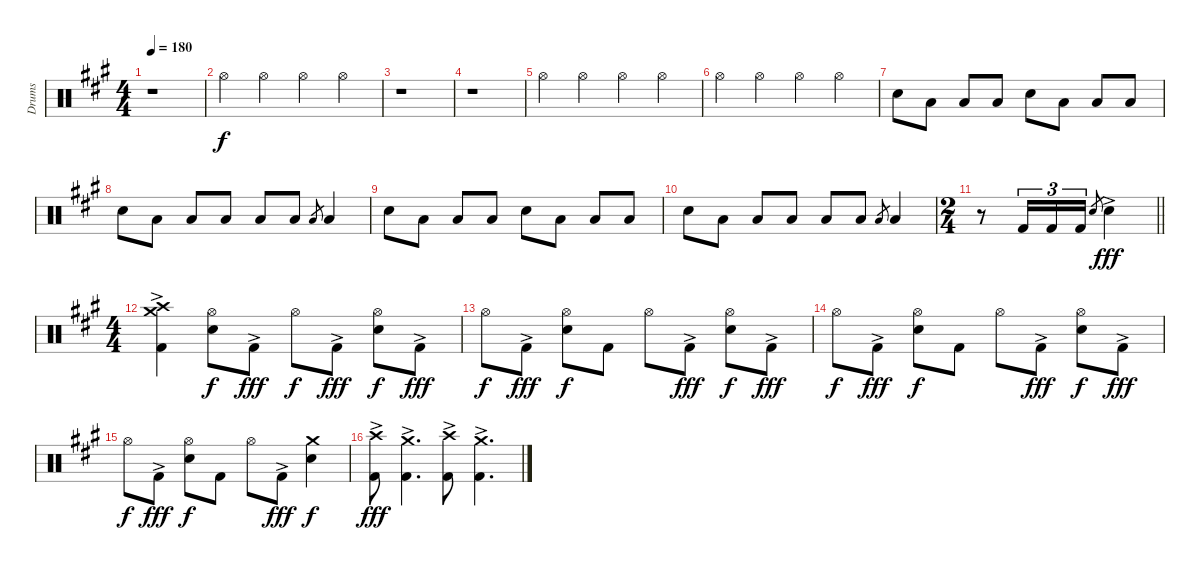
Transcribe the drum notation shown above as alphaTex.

\track ("Drums" "Drums") {instrument percussion}
\staff {score}
\articulation defaults
\ts (4 4)
\tempo 180
\clef neutral
\ks f#minor
r.1{dy f} |
"Hi-Hat (open)".4 "Hi-Hat (open)".4 "Hi-Hat (open)".4 "Hi-Hat (open)".4 |
r.1 |
r.1 |
"Hi-Hat (open)".4 "Hi-Hat (open)".4 "Hi-Hat (open)".4 "Hi-Hat (open)".4 |
"Hi-Hat (open)".4 "Hi-Hat (open)".4 "Hi-Hat (open)".4 "Hi-Hat (open)".4 |
"Snare (hit) 2".8 "Low Tom (hit)".8 "Low Tom (hit)".8 "Low Tom (hit)".8 "Snare (hit) 2".8 "Low Tom (hit)".8 "Low Tom (hit)".8 "Low Tom (hit)".8 |
"Snare (hit) 2".8 "Low Tom (hit)".8 "Low Tom (hit)".8 "Low Tom (hit)".8 "Low Tom (hit)".8 "Low Tom (hit)".8 "Low Tom (hit)".8{gr} "Low Tom (hit)".4 |
"Snare (hit) 2".8 "Low Tom (hit)".8 "Low Tom (hit)".8 "Low Tom (hit)".8 "Snare (hit) 2".8 "Low Tom (hit)".8 "Low Tom (hit)".8 "Low Tom (hit)".8 |
"Snare (hit) 2".8 "Low Tom (hit)".8 "Low Tom (hit)".8 "Low Tom (hit)".8 "Low Tom (hit)".8 "Low Tom (hit)".8 "Low Tom (hit)".8{gr} "Low Tom (hit)".4 |
\ts (2 4)
\barLineRight lightlight
r.8 "Kick (hit) 2".16{tu (3 2)} "Kick (hit) 2".16{tu (3 2)} "Kick (hit) 2".16{tu (3 2)} "Snare (hit) 2".8{gr} "Snare (hit) 2"{ac}.4{dy fff} |
\ts (4 4)
("Crash high (hit)" "Crash medium (hit)" "Kick (hit) 2"{ac}).4 ("Hi-Hat (open)" "Snare (hit) 2").8{dy f} "Kick (hit) 2"{ac}.8{dy fff} "Hi-Hat (open)".8{dy f} "Kick (hit) 2"{ac}.8{dy fff} ("Hi-Hat (open)" "Snare (hit) 2").8{dy f} "Kick (hit) 2"{ac}.8{dy fff} |
"Hi-Hat (open)".8{dy f} "Kick (hit) 2"{ac}.8{dy fff} ("Hi-Hat (open)" "Snare (hit) 2").8{dy f} "Kick (hit) 2".8 "Hi-Hat (open)".8 "Kick (hit) 2"{ac}.8{dy fff} ("Hi-Hat (open)" "Snare (hit) 2").8{dy f} "Kick (hit) 2"{ac}.8{dy fff} |
"Hi-Hat (open)".8{dy f} "Kick (hit) 2"{ac}.8{dy fff} ("Hi-Hat (open)" "Snare (hit) 2").8{dy f} "Kick (hit) 2".8 "Hi-Hat (open)".8 "Kick (hit) 2"{ac}.8{dy fff} ("Hi-Hat (open)" "Snare (hit) 2").8{dy f} "Kick (hit) 2"{ac}.8{dy fff} |
"Hi-Hat (open)".8{dy f} "Kick (hit) 2"{ac}.8{dy fff} ("Hi-Hat (open)" "Snare (hit) 2").8{dy f} "Kick (hit) 2".8 "Hi-Hat (open)".8 "Kick (hit) 2"{ac}.8{dy fff} ("Crash medium (hit)" "Snare (hit) 2").4{dy f} |
("Crash high (hit)" "Kick (hit) 2"{ac}).8{dy fff} ("Crash medium (hit)" "Kick (hit) 2"{ac}).4{d} ("Crash high (hit)" "Kick (hit) 2"{ac}).8 ("Crash medium (hit)" "Kick (hit) 2"{ac}).4{d}
